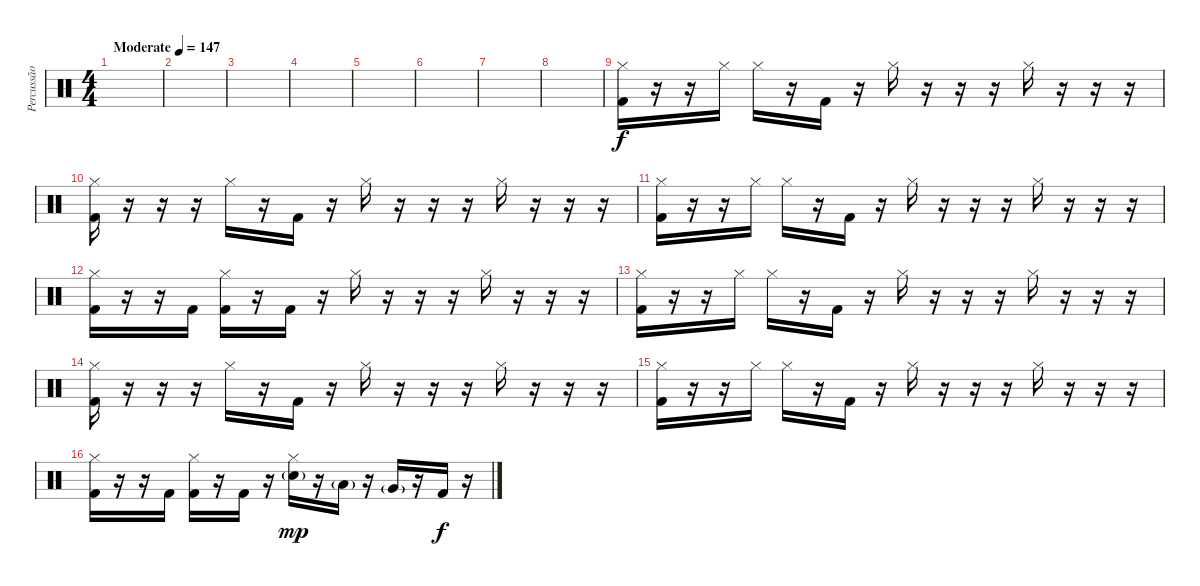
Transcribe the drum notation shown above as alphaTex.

\track ("Percussão" "Percussão") {instrument percussion}
\staff {score}
\articulation defaults
\ts (4 4)
\tempo (147 "Moderate")
\clef neutral
\ks c
|
|
|
|
|
|
|
|
("Hi-Hat (closed)" "Kick (hit) 2").16 r.16 r.16 "Hi-Hat (closed)".16 "Hi-Hat (closed)".16 r.16 "Kick (hit) 2".16 r.16 "Hi-Hat (closed)".16 r.16 r.16 r.16 "Hi-Hat (closed)".16 r.16 r.16 r.16 |
("Hi-Hat (closed)" "Kick (hit) 2").16 r.16 r.16 r.16 "Hi-Hat (closed)".16 r.16 "Kick (hit) 2".16 r.16 "Hi-Hat (closed)".16 r.16 r.16 r.16 "Hi-Hat (closed)".16 r.16 r.16 r.16 |
("Hi-Hat (closed)" "Kick (hit) 2").16 r.16 r.16 "Hi-Hat (closed)".16 "Hi-Hat (closed)".16 r.16 "Kick (hit) 2".16 r.16 "Hi-Hat (closed)".16 r.16 r.16 r.16 "Hi-Hat (closed)".16 r.16 r.16 r.16 |
("Hi-Hat (closed)" "Kick (hit) 2").16 r.16 r.16 "Kick (hit) 2".16 ("Hi-Hat (closed)" "Kick (hit) 2").16 r.16 "Kick (hit) 2".16 r.16 "Hi-Hat (closed)".16 r.16 r.16 r.16 "Hi-Hat (closed)".16 r.16 r.16 r.16 |
("Hi-Hat (closed)" "Kick (hit) 2").16 r.16 r.16 "Hi-Hat (closed)".16 "Hi-Hat (closed)".16 r.16 "Kick (hit) 2".16 r.16 "Hi-Hat (closed)".16 r.16 r.16 r.16 "Hi-Hat (closed)".16 r.16 r.16 r.16 |
("Hi-Hat (closed)" "Kick (hit) 2").16 r.16 r.16 r.16 "Hi-Hat (closed)".16 r.16 "Kick (hit) 2".16 r.16 "Hi-Hat (closed)".16 r.16 r.16 r.16 "Hi-Hat (closed)".16 r.16 r.16 r.16 |
("Hi-Hat (closed)" "Kick (hit) 2").16 r.16 r.16 "Hi-Hat (closed)".16 "Hi-Hat (closed)".16 r.16 "Kick (hit) 2".16 r.16 "Hi-Hat (closed)".16 r.16 r.16 r.16 "Hi-Hat (closed)".16 r.16 r.16 r.16 |
("Hi-Hat (closed)" "Kick (hit) 2").16 r.16 r.16 "Kick (hit) 2".16 ("Hi-Hat (closed)" "Kick (hit) 2").16 r.16 "Kick (hit) 2".16 r.16 ("Hi-Hat (closed)" "Snare (hit) 2"{g}).16{dy mp} r.16 "Low Tom (hit)"{g}.16 r.16 "Very Low Tom (hit)"{g}.16 r.16 "Kick (hit) 2".16{dy f} r.16
